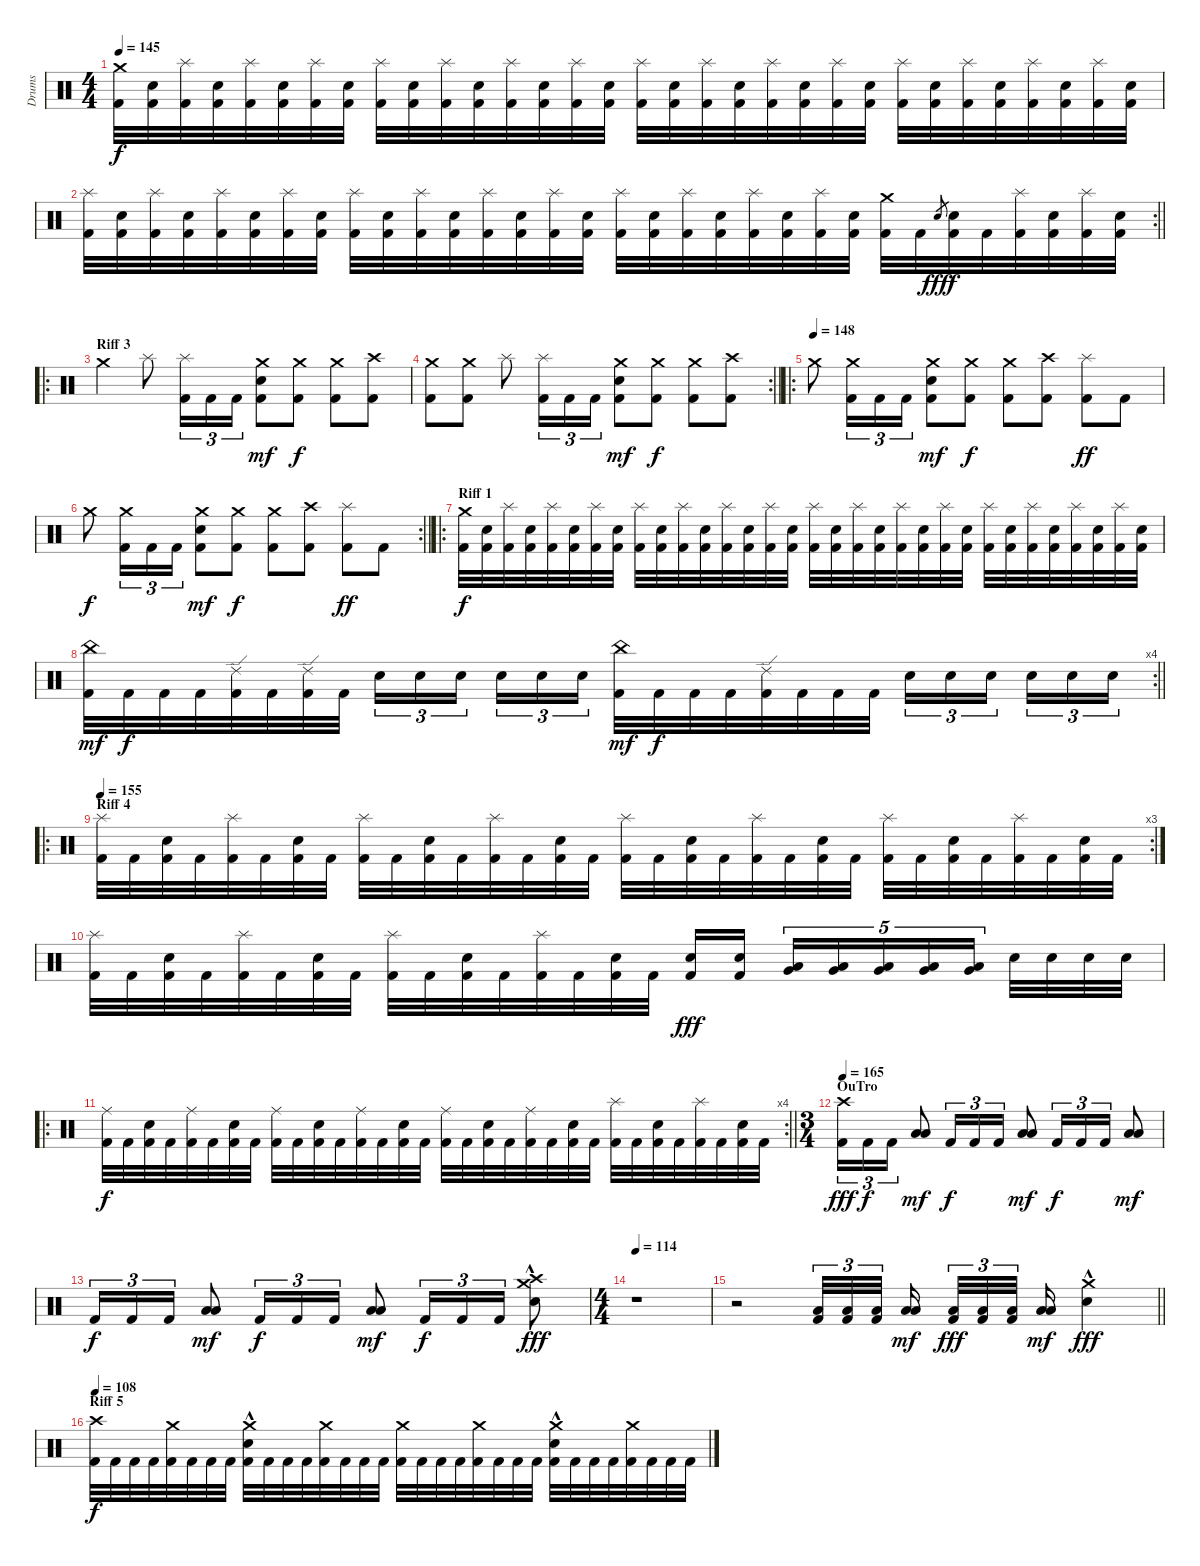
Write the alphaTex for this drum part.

\track ("Drums" "Drums") {instrument percussion}
\staff {score}
\articulation defaults
\ts (4 4)
\tempo 145
\clef neutral
\ks c
("Crash medium (hit)" "Kick (hit) 2").32{dy f} ("Electric Snare (hit)" "Kick (hit) 2").32 ("Splash (hit)" "Kick (hit) 2").32 ("Electric Snare (hit)" "Kick (hit) 2").32 ("Splash (hit)" "Kick (hit) 2").32 ("Electric Snare (hit)" "Kick (hit) 2").32 ("Splash (hit)" "Kick (hit) 2").32 ("Electric Snare (hit)" "Kick (hit) 2").32 ("Splash (hit)" "Kick (hit) 2").32 ("Electric Snare (hit)" "Kick (hit) 2").32 ("Splash (hit)" "Kick (hit) 2").32 ("Electric Snare (hit)" "Kick (hit) 2").32 ("Splash (hit)" "Kick (hit) 2").32 ("Electric Snare (hit)" "Kick (hit) 2").32 ("Splash (hit)" "Kick (hit) 2").32 ("Electric Snare (hit)" "Kick (hit) 2").32 ("Splash (hit)" "Kick (hit) 2").32 ("Electric Snare (hit)" "Kick (hit) 2").32 ("Splash (hit)" "Kick (hit) 2").32 ("Electric Snare (hit)" "Kick (hit) 2").32 ("Splash (hit)" "Kick (hit) 2").32 ("Electric Snare (hit)" "Kick (hit) 2").32 ("Splash (hit)" "Kick (hit) 2").32 ("Electric Snare (hit)" "Kick (hit) 2").32 ("Splash (hit)" "Kick (hit) 2").32 ("Electric Snare (hit)" "Kick (hit) 2").32 ("Splash (hit)" "Kick (hit) 2").32 ("Electric Snare (hit)" "Kick (hit) 2").32 ("Splash (hit)" "Kick (hit) 2").32 ("Electric Snare (hit)" "Kick (hit) 2").32 ("Splash (hit)" "Kick (hit) 2").32 ("Electric Snare (hit)" "Kick (hit) 2").32 |
\rc 2
\barLineRight lightlight
("Splash (hit)" "Kick (hit) 2").32 ("Electric Snare (hit)" "Kick (hit) 2").32 ("Splash (hit)" "Kick (hit) 2").32 ("Electric Snare (hit)" "Kick (hit) 2").32 ("Splash (hit)" "Kick (hit) 2").32 ("Electric Snare (hit)" "Kick (hit) 2").32 ("Splash (hit)" "Kick (hit) 2").32 ("Electric Snare (hit)" "Kick (hit) 2").32 ("Splash (hit)" "Kick (hit) 2").32 ("Electric Snare (hit)" "Kick (hit) 2").32 ("Splash (hit)" "Kick (hit) 2").32 ("Electric Snare (hit)" "Kick (hit) 2").32 ("Splash (hit)" "Kick (hit) 2").32 ("Electric Snare (hit)" "Kick (hit) 2").32 ("Splash (hit)" "Kick (hit) 2").32 ("Electric Snare (hit)" "Kick (hit) 2").32 ("Splash (hit)" "Kick (hit) 2").32 ("Electric Snare (hit)" "Kick (hit) 2").32 ("Splash (hit)" "Kick (hit) 2").32 ("Electric Snare (hit)" "Kick (hit) 2").32 ("Splash (hit)" "Kick (hit) 2").32 ("Electric Snare (hit)" "Kick (hit) 2").32 ("Splash (hit)" "Kick (hit) 2").32 ("Electric Snare (hit)" "Kick (hit) 2").32 ("Crash medium (hit)" "Kick (hit) 2").32 "Kick (hit) 2".32 "Electric Snare (hit)".8{gr dy fff} ("Electric Snare (hit)" "Kick (hit) 2").32{dy f} "Kick (hit) 2".32 ("Splash (hit)" "Kick (hit) 2").32 ("Electric Snare (hit)" "Kick (hit) 2").32 ("Splash (hit)" "Kick (hit) 2").32 ("Electric Snare (hit)" "Kick (hit) 2").32 |
\ro
\section ("" "Riff 3")
"Crash medium (hit)".4 "Splash (hit)".8 ("Splash (hit)" "Kick (hit) 2").16{tu (3 2)} "Kick (hit) 2".16{tu (3 2)} "Kick (hit) 2".16{tu (3 2)} ("Crash medium (hit)" "Electric Snare (hit)" "Kick (hit) 2").8{dy mf} ("Crash medium (hit)" "Kick (hit) 2").8{dy f} ("Crash medium (hit)" "Kick (hit) 2").8 ("Crash high (hit)" "Kick (hit) 2").8 |
\rc 2
\barLineRight lightlight
("Crash medium (hit)" "Kick (hit) 2").8 ("Crash medium (hit)" "Kick (hit) 2").8 "Splash (hit)".8 ("Splash (hit)" "Kick (hit) 2").16{tu (3 2)} "Kick (hit) 2".16{tu (3 2)} "Kick (hit) 2".16{tu (3 2)} ("Crash medium (hit)" "Electric Snare (hit)" "Kick (hit) 2").8{dy mf} ("Crash medium (hit)" "Kick (hit) 2").8{dy f} ("Crash medium (hit)" "Kick (hit) 2").8 ("Crash high (hit)" "Kick (hit) 2").8 |
\ro
\tempo (148)
"Crash medium (hit)".8 ("Crash medium (hit)" "Kick (hit) 2").16{tu (3 2)} "Kick (hit) 2".16{tu (3 2)} "Kick (hit) 2".16{tu (3 2)} ("Crash medium (hit)" "Electric Snare (hit)" "Kick (hit) 2").8{dy mf} ("Crash medium (hit)" "Kick (hit) 2").8{dy f} ("Crash medium (hit)" "Kick (hit) 2").8 ("Crash high (hit)" "Kick (hit) 2").8 ("Splash (hit)" "Kick (hit) 2").8{dy ff} "Kick (hit) 2".8 |
\rc 2
\barLineRight lightlight "Crash medium (hit)".8{dy f}
("Crash medium (hit)" "Kick (hit) 2").16{tu (3 2)} "Kick (hit) 2".16{tu (3 2)} "Kick (hit) 2".16{tu (3 2)} ("Crash medium (hit)" "Electric Snare (hit)" "Kick (hit) 2").8{dy mf} ("Crash medium (hit)" "Kick (hit) 2").8{dy f} ("Crash medium (hit)" "Kick (hit) 2").8 ("Crash high (hit)" "Kick (hit) 2").8 ("Splash (hit)" "Kick (hit) 2").8{dy ff} "Kick (hit) 2".8 |
\ro
\section ("" "Riff 1")
("Crash medium (hit)" "Kick (hit) 2").32{dy f} ("Electric Snare (hit)" "Kick (hit) 2").32 ("Splash (hit)" "Kick (hit) 2").32 ("Electric Snare (hit)" "Kick (hit) 2").32 ("Splash (hit)" "Kick (hit) 2").32 ("Electric Snare (hit)" "Kick (hit) 2").32 ("Splash (hit)" "Kick (hit) 2").32 ("Electric Snare (hit)" "Kick (hit) 2").32 ("Splash (hit)" "Kick (hit) 2").32 ("Electric Snare (hit)" "Kick (hit) 2").32 ("Splash (hit)" "Kick (hit) 2").32 ("Electric Snare (hit)" "Kick (hit) 2").32 ("Splash (hit)" "Kick (hit) 2").32 ("Electric Snare (hit)" "Kick (hit) 2").32 ("Splash (hit)" "Kick (hit) 2").32 ("Electric Snare (hit)" "Kick (hit) 2").32 ("Splash (hit)" "Kick (hit) 2").32 ("Electric Snare (hit)" "Kick (hit) 2").32 ("Splash (hit)" "Kick (hit) 2").32 ("Electric Snare (hit)" "Kick (hit) 2").32 ("Splash (hit)" "Kick (hit) 2").32 ("Electric Snare (hit)" "Kick (hit) 2").32 ("Splash (hit)" "Kick (hit) 2").32 ("Electric Snare (hit)" "Kick (hit) 2").32 ("Splash (hit)" "Kick (hit) 2").32 ("Electric Snare (hit)" "Kick (hit) 2").32 ("Splash (hit)" "Kick (hit) 2").32 ("Electric Snare (hit)" "Kick (hit) 2").32 ("Splash (hit)" "Kick (hit) 2").32 ("Electric Snare (hit)" "Kick (hit) 2").32 ("Splash (hit)" "Kick (hit) 2").32 ("Electric Snare (hit)" "Kick (hit) 2").32 |
\rc 4
\barLineRight lightlight
("China (hit)" "Kick (hit) 2").32{dy mf} "Kick (hit) 2".32{dy f} "Kick (hit) 2".32 "Kick (hit) 2".32 ("Ride (edge) 2" "Kick (hit) 2").32 "Kick (hit) 2".32 ("Ride (edge) 2" "Kick (hit) 2").32 "Kick (hit) 2".32 "Electric Snare (hit)".16{tu (3 2)} "Electric Snare (hit)".16{tu (3 2)} "Electric Snare (hit)".16{tu (3 2) beam splitsecondary} "Electric Snare (hit)".16{tu (3 2)} "Electric Snare (hit)".16{tu (3 2)} "Electric Snare (hit)".16{tu (3 2)} ("China (hit)" "Kick (hit) 2").32{dy mf} "Kick (hit) 2".32{dy f} "Kick (hit) 2".32 "Kick (hit) 2".32 ("Ride (edge) 2" "Kick (hit) 2").32 "Kick (hit) 2".32 "Kick (hit) 2".32 "Kick (hit) 2".32 "Electric Snare (hit)".16{tu (3 2)} "Electric Snare (hit)".16{tu (3 2)} "Electric Snare (hit)".16{tu (3 2) beam splitsecondary} "Electric Snare (hit)".16{tu (3 2)} "Electric Snare (hit)".16{tu (3 2)} "Electric Snare (hit)".16{tu (3 2)} |
\ro
\rc 3
\section ("" "Riff 4")
\tempo 155
("Splash (hit)" "Kick (hit) 2").32 "Kick (hit) 2".32 ("Electric Snare (hit)" "Kick (hit) 2").32 "Kick (hit) 2".32 ("Splash (hit)" "Kick (hit) 2").32 "Kick (hit) 2".32 ("Electric Snare (hit)" "Kick (hit) 2").32 "Kick (hit) 2".32 ("Splash (hit)" "Kick (hit) 2").32 "Kick (hit) 2".32 ("Electric Snare (hit)" "Kick (hit) 2").32 "Kick (hit) 2".32 ("Splash (hit)" "Kick (hit) 2").32 "Kick (hit) 2".32 ("Electric Snare (hit)" "Kick (hit) 2").32 "Kick (hit) 2".32 ("Splash (hit)" "Kick (hit) 2").32 "Kick (hit) 2".32 ("Electric Snare (hit)" "Kick (hit) 2").32 "Kick (hit) 2".32 ("Splash (hit)" "Kick (hit) 2").32 "Kick (hit) 2".32 ("Electric Snare (hit)" "Kick (hit) 2").32 "Kick (hit) 2".32 ("Splash (hit)" "Kick (hit) 2").32 "Kick (hit) 2".32 ("Electric Snare (hit)" "Kick (hit) 2").32 "Kick (hit) 2".32 ("Splash (hit)" "Kick (hit) 2").32 "Kick (hit) 2".32 ("Electric Snare (hit)" "Kick (hit) 2").32 "Kick (hit) 2".32 |
("Splash (hit)" "Kick (hit) 2").32 "Kick (hit) 2".32 ("Electric Snare (hit)" "Kick (hit) 2").32 "Kick (hit) 2".32 ("Splash (hit)" "Kick (hit) 2").32 "Kick (hit) 2".32 ("Electric Snare (hit)" "Kick (hit) 2").32 "Kick (hit) 2".32 ("Splash (hit)" "Kick (hit) 2").32 "Kick (hit) 2".32 ("Electric Snare (hit)" "Kick (hit) 2").32 "Kick (hit) 2".32 ("Splash (hit)" "Kick (hit) 2").32 "Kick (hit) 2".32 ("Electric Snare (hit)" "Kick (hit) 2").32 "Kick (hit) 2".32 ("Electric Snare (hit)" "Kick (hit) 2").16{dy fff} ("Electric Snare (hit)" "Kick (hit) 2").16{beam splitsecondary} ("Low Tom (hit)" "Very Low Tom (hit)").16{tu (5 4)} ("Low Tom (hit)" "Very Low Tom (hit)").16{tu (5 4)} ("Low Tom (hit)" "Very Low Tom (hit)").16{tu (5 4)} ("Low Tom (hit)" "Very Low Tom (hit)").16{tu (5 4)} ("Low Tom (hit)" "Very Low Tom (hit)").16{tu (5 4) beam splitsecondary} "Electric Snare (hit)".32 "Electric Snare (hit)".32 "Electric Snare (hit)".32 "Electric Snare (hit)".32 |
\ro
\rc 4
\barLineRight lightlight
("Ride (middle)" "Kick (hit) 2").32{dy f} "Kick (hit) 2".32 ("Electric Snare (hit)" "Kick (hit) 2").32 "Kick (hit) 2".32 ("Ride (middle)" "Kick (hit) 2").32 "Kick (hit) 2".32 ("Electric Snare (hit)" "Kick (hit) 2").32 "Kick (hit) 2".32 ("Ride (middle)" "Kick (hit) 2").32 "Kick (hit) 2".32 ("Electric Snare (hit)" "Kick (hit) 2").32 "Kick (hit) 2".32 ("Ride (middle)" "Kick (hit) 2").32 "Kick (hit) 2".32 ("Electric Snare (hit)" "Kick (hit) 2").32 "Kick (hit) 2".32 ("Ride (middle)" "Kick (hit) 2").32 "Kick (hit) 2".32 ("Electric Snare (hit)" "Kick (hit) 2").32 "Kick (hit) 2".32 ("Ride (middle)" "Kick (hit) 2").32 "Kick (hit) 2".32 ("Electric Snare (hit)" "Kick (hit) 2").32 "Kick (hit) 2".32 ("Splash (hit)" "Kick (hit) 2").32 "Kick (hit) 2".32 ("Electric Snare (hit)" "Kick (hit) 2").32 "Kick (hit) 2".32 ("Splash (hit)" "Kick (hit) 2").32 "Kick (hit) 2".32 ("Electric Snare (hit)" "Kick (hit) 2").32 "Kick (hit) 2".32 |
\ts (3 4)
\section ("" "OuTro")
\tempo 165
("Crash high (hit)" "Kick (hit) 2").16{tu (3 2) dy fff} "Kick (hit) 2".16{tu (3 2) dy f} "Kick (hit) 2".16{tu (3 2)} ("Low Floor Tom (hit)" "Low Floor Tom (hit)").8{dy mf} "Kick (hit) 2".16{tu (3 2) dy f} "Kick (hit) 2".16{tu (3 2)} "Kick (hit) 2".16{tu (3 2)} ("Low Floor Tom (hit)" "Low Floor Tom (hit)").8{dy mf} "Kick (hit) 2".16{tu (3 2) dy f} "Kick (hit) 2".16{tu (3 2)} "Kick (hit) 2".16{tu (3 2)} ("Low Floor Tom (hit)" "Low Floor Tom (hit)").8{dy mf} |
"Kick (hit) 2".16{tu (3 2) dy f} "Kick (hit) 2".16{tu (3 2)} "Kick (hit) 2".16{tu (3 2)} ("Low Floor Tom (hit)" "Low Floor Tom (hit)").8{dy mf} "Kick (hit) 2".16{tu (3 2) dy f} "Kick (hit) 2".16{tu (3 2)} "Kick (hit) 2".16{tu (3 2)} ("Low Floor Tom (hit)" "Low Floor Tom (hit)").8{dy mf} "Kick (hit) 2".16{tu (3 2) dy f} "Kick (hit) 2".16{tu (3 2)} "Kick (hit) 2".16{tu (3 2)} ("Crash medium (hit)" "Crash high (hit)" "Electric Snare (hit)"{hac}).8{dy fff} |
\ts (4 4)
\tempo 114
r.1 |
\barLineRight lightlight
r.2 ("Low Floor Tom (hit)" "Kick (hit) 2").32{tu (3 2)} ("Low Floor Tom (hit)" "Kick (hit) 2").32{tu (3 2)} ("Low Floor Tom (hit)" "Kick (hit) 2").32{tu (3 2) beam splitsecondary} ("Low Floor Tom (hit)" "Low Floor Tom (hit)").16{dy mf beam splitsecondary} ("Low Floor Tom (hit)" "Kick (hit) 2").32{tu (3 2) dy fff} ("Low Floor Tom (hit)" "Kick (hit) 2").32{tu (3 2)} ("Low Floor Tom (hit)" "Kick (hit) 2").32{tu (3 2) beam splitsecondary} ("Low Floor Tom (hit)" "Low Floor Tom (hit)").16{dy mf} ("Crash medium (hit)" "Electric Snare (hit)"{hac}).4{dy fff} |
\section ("" "Riff 5")
\tempo 108
("Crash high (hit)" "Kick (hit) 2").32{dy f} "Kick (hit) 2".32 "Kick (hit) 2".32 "Kick (hit) 2".32 ("Crash medium (hit)" "Kick (hit) 2").32 "Kick (hit) 2".32 "Kick (hit) 2".32 "Kick (hit) 2".32 ("Crash medium (hit)" "Electric Snare (hit)"{hac} "Kick (hit) 2").32 "Kick (hit) 2".32 "Kick (hit) 2".32 "Kick (hit) 2".32 ("Crash medium (hit)" "Kick (hit) 2").32 "Kick (hit) 2".32 "Kick (hit) 2".32 "Kick (hit) 2".32 ("Crash medium (hit)" "Kick (hit) 2").32 "Kick (hit) 2".32 "Kick (hit) 2".32 "Kick (hit) 2".32 ("Crash medium (hit)" "Kick (hit) 2").32 "Kick (hit) 2".32 "Kick (hit) 2".32 "Kick (hit) 2".32 ("Crash medium (hit)" "Electric Snare (hit)"{hac} "Kick (hit) 2").32 "Kick (hit) 2".32 "Kick (hit) 2".32 "Kick (hit) 2".32 ("Crash medium (hit)" "Kick (hit) 2").32 "Kick (hit) 2".32 "Kick (hit) 2".32 "Kick (hit) 2".32
